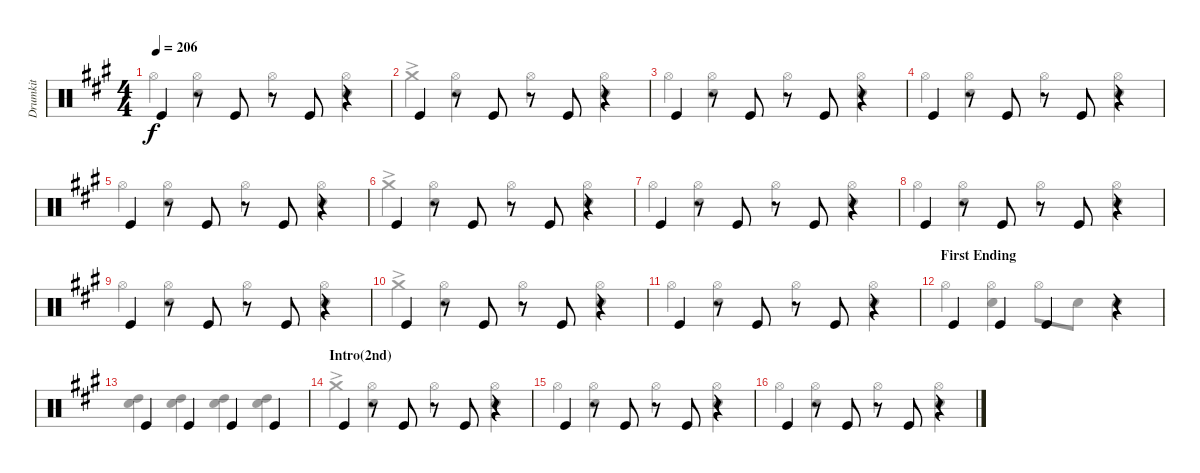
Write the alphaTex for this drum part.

\track ("Drumkit" "Drumkit") {instrument percussion}
\staff {score}
\articulation defaults
\voice
\ts (4 4)
\tempo 206
\clef neutral
\ks a "Kick (hit)".4{dy f}
r.8 "Kick (hit)".8 r.8 "Kick (hit)".8 r.4 |
"Kick (hit)".4 r.8 "Kick (hit)".8 r.8 "Kick (hit)".8 r.4 |
"Kick (hit)".4 r.8 "Kick (hit)".8 r.8 "Kick (hit)".8 r.4 |
"Kick (hit)".4 r.8 "Kick (hit)".8 r.8 "Kick (hit)".8 r.4 |
"Kick (hit)".4 r.8 "Kick (hit)".8 r.8 "Kick (hit)".8 r.4 |
"Kick (hit)".4 r.8 "Kick (hit)".8 r.8 "Kick (hit)".8 r.4 |
"Kick (hit)".4 r.8 "Kick (hit)".8 r.8 "Kick (hit)".8 r.4 |
"Kick (hit)".4 r.8 "Kick (hit)".8 r.8 "Kick (hit)".8 r.4 |
"Kick (hit)".4 r.8 "Kick (hit)".8 r.8 "Kick (hit)".8 r.4 |
"Kick (hit)".4 r.8 "Kick (hit)".8 r.8 "Kick (hit)".8 r.4 |
"Kick (hit)".4 r.8 "Kick (hit)".8 r.8 "Kick (hit)".8 r.4 |
\section ("" "First Ending")
"Kick (hit)".4 "Kick (hit)".4 "Kick (hit)".4 r.4 |
"Kick (hit)".4 "Kick (hit)".4 "Kick (hit)".4 "Kick (hit)".4 |
\section ("" "Intro(2nd)")
"Kick (hit)".4 r.8 "Kick (hit)".8 r.8 "Kick (hit)".8 r.4 |
"Kick (hit)".4 r.8 "Kick (hit)".8 r.8 "Kick (hit)".8 r.4 |
"Kick (hit)".4 r.8 "Kick (hit)".8 r.8 "Kick (hit)".8 r.4
\voice
\clef neutral
\ottava regular
\simile none
\ks a "Hi-Hat (open)".4{dy f}
("Hi-Hat (open)" "Snare (hit) 2").4 "Hi-Hat (open)".4 ("Hi-Hat (open)" "Snare (hit) 2").4 |
"Crash medium (hit)"{ac}.4 ("Hi-Hat (open)" "Snare (hit) 2").4 "Hi-Hat (open)".4 ("Hi-Hat (open)" "Snare (hit) 2").4 |
"Hi-Hat (open)".4 ("Hi-Hat (open)" "Snare (hit) 2").4 "Hi-Hat (open)".4 ("Hi-Hat (open)" "Snare (hit) 2").4 |
"Hi-Hat (open)".4 ("Hi-Hat (open)" "Snare (hit) 2").4 "Hi-Hat (open)".4 ("Hi-Hat (open)" "Snare (hit) 2").4 |
"Hi-Hat (open)".4 ("Hi-Hat (open)" "Snare (hit) 2").4 "Hi-Hat (open)".4 ("Hi-Hat (open)" "Snare (hit) 2").4 |
"Crash medium (hit)"{ac}.4 ("Hi-Hat (open)" "Snare (hit) 2").4 "Hi-Hat (open)".4 ("Hi-Hat (open)" "Snare (hit) 2").4 |
"Hi-Hat (open)".4 ("Hi-Hat (open)" "Snare (hit) 2").4 "Hi-Hat (open)".4 ("Hi-Hat (open)" "Snare (hit) 2").4 |
"Hi-Hat (open)".4 ("Hi-Hat (open)" "Snare (hit) 2").4 "Hi-Hat (open)".4 ("Hi-Hat (open)" "Snare (hit) 2").4 |
"Hi-Hat (open)".4 ("Hi-Hat (open)" "Snare (hit) 2").4 "Hi-Hat (open)".4 ("Hi-Hat (open)" "Snare (hit) 2").4 |
"Crash medium (hit)"{ac}.4 ("Hi-Hat (open)" "Snare (hit) 2").4 "Hi-Hat (open)".4 ("Hi-Hat (open)" "Snare (hit) 2").4 |
"Hi-Hat (open)".4 ("Hi-Hat (open)" "Snare (hit) 2").4 "Hi-Hat (open)".4 ("Hi-Hat (open)" "Snare (hit) 2").4 |
"Hi-Hat (open)".4 ("Hi-Hat (open)" "Snare (hit) 2").4 "Hi-Hat (open)".8 "Snare (hit) 2".8 "Snare (hit) 2".4 |
("Snare (hit) 2" "High Tom (hit)").4 ("Snare (hit) 2" "High Tom (hit)").4 ("Snare (hit) 2" "High Tom (hit)").4 ("Snare (hit) 2" "High Tom (hit)").4 |
"Crash medium (hit)"{ac}.4 ("Hi-Hat (open)" "Snare (hit) 2").4 "Hi-Hat (open)".4 ("Hi-Hat (open)" "Snare (hit) 2").4 |
"Hi-Hat (open)".4 ("Hi-Hat (open)" "Snare (hit) 2").4 "Hi-Hat (open)".4 ("Hi-Hat (open)" "Snare (hit) 2").4 |
"Hi-Hat (open)".4 ("Hi-Hat (open)" "Snare (hit) 2").4 "Hi-Hat (open)".4 ("Hi-Hat (open)" "Snare (hit) 2").4
